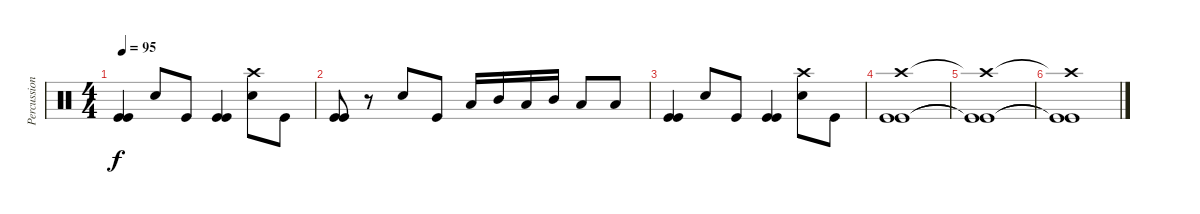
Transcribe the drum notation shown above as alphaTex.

\track ("Percussion" "Percussion") {instrument percussion}
\staff {score}
\articulation defaults
\ts (4 4)
\tempo 95
\clef neutral
\ks c
("Kick (hit)" "Kick (hit)").4{dy f} "Electric Snare (hit)".8 "Kick (hit)".8 ("Kick (hit)" "Kick (hit)").4 ("Electric Snare (hit)" "Crash high (hit)").8 "Kick (hit)".8 |
("Kick (hit)" "Kick (hit)").8 r.8 "Electric Snare (hit)".8 "Kick (hit)".8 "Low Tom (hit)".16 "Mid Tom (hit)".16 "Low Tom (hit)".16 "Mid Tom (hit)".16 "Low Tom (hit)".8 "Low Tom (hit)".8 |
("Kick (hit)" "Kick (hit)").4 "Electric Snare (hit)".8 "Kick (hit)".8 ("Kick (hit)" "Kick (hit)").4 ("Electric Snare (hit)" "Crash high (hit)").8 "Kick (hit)".8 |
("Crash high (hit)" "Kick (hit)" "Kick (hit)").1 |
("Crash high (hit)"{t} "Kick (hit)"{t} "Kick (hit)"{t}).1 |
("Crash high (hit)"{t} "Kick (hit)"{t} "Kick (hit)"{t}).1
